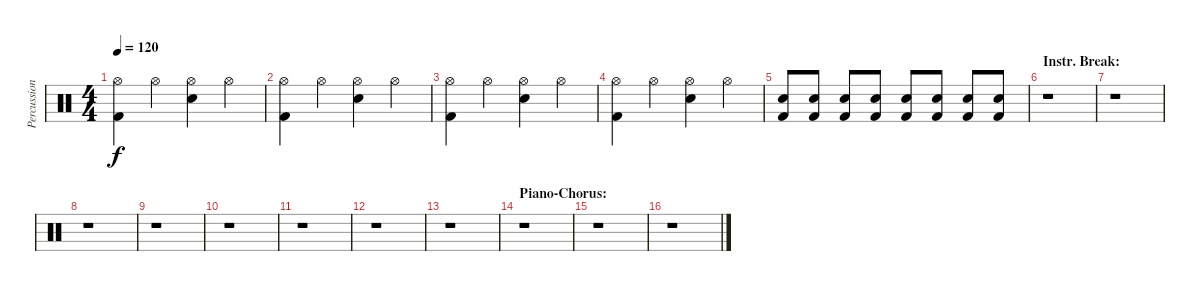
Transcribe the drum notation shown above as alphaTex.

\track ("Percussion" "Percussion") {instrument percussion}
\staff {score}
\articulation defaults
\ts (4 4)
\tempo 120
\clef neutral
\ks c
("Hi-Hat (open)" "Kick (hit) 2").4{dy f} "Hi-Hat (open)".4 ("Hi-Hat (open)" "Electric Snare (hit)").4 "Hi-Hat (open)".4 |
("Hi-Hat (open)" "Kick (hit) 2").4 "Hi-Hat (open)".4 ("Hi-Hat (open)" "Electric Snare (hit)").4 "Hi-Hat (open)".4 |
("Hi-Hat (open)" "Kick (hit) 2").4 "Hi-Hat (open)".4 ("Hi-Hat (open)" "Electric Snare (hit)").4 "Hi-Hat (open)".4 |
("Hi-Hat (open)" "Kick (hit) 2").4 "Hi-Hat (open)".4 ("Hi-Hat (open)" "Electric Snare (hit)").4 "Hi-Hat (open)".4 |
("Electric Snare (hit)" "Kick (hit) 2").8 ("Electric Snare (hit)" "Kick (hit) 2").8 ("Electric Snare (hit)" "Kick (hit) 2").8 ("Electric Snare (hit)" "Kick (hit) 2").8 ("Electric Snare (hit)" "Kick (hit) 2").8 ("Electric Snare (hit)" "Kick (hit) 2").8 ("Electric Snare (hit)" "Kick (hit) 2").8 ("Electric Snare (hit)" "Kick (hit) 2").8 |
\section ("" "Instr. Break:")
r.1 |
r.1 |
r.1 |
r.1 |
r.1 |
r.1 |
r.1 |
r.1 |
\section ("" "Piano-Chorus:")
r.1 |
r.1 |
r.1
